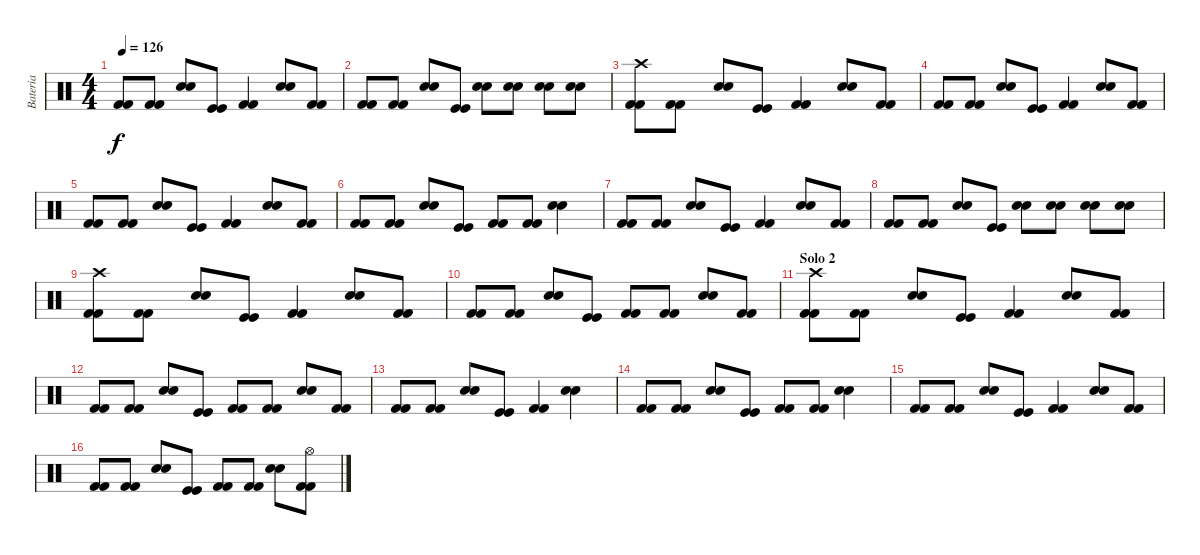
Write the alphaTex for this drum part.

\track ("Bateria" "Bateria") {instrument percussion}
\staff {score}
\articulation defaults
\ts (4 4)
\tempo 126
\clef neutral
\ks c
("Kick (hit) 2" "Kick (hit) 2").8{dy f} ("Kick (hit) 2" "Kick (hit) 2").8 ("Electric Snare (hit)" "Snare (hit) 2").8 ("Kick (hit)" "Kick (hit)").8 ("Kick (hit) 2" "Kick (hit) 2").4 ("Electric Snare (hit)" "Snare (hit) 2").8 ("Kick (hit) 2" "Kick (hit) 2").8 |
("Kick (hit) 2" "Kick (hit) 2").8 ("Kick (hit) 2" "Kick (hit) 2").8 ("Electric Snare (hit)" "Snare (hit) 2").8 ("Kick (hit)" "Kick (hit)").8 ("Electric Snare (hit)" "Snare (hit) 2").8 ("Electric Snare (hit)" "Snare (hit) 2").8 ("Electric Snare (hit)" "Snare (hit) 2").8 ("Electric Snare (hit)" "Snare (hit) 2").8 |
("Crash high (hit)" "Kick (hit) 2" "Kick (hit) 2").8 ("Kick (hit) 2" "Kick (hit) 2").8 ("Electric Snare (hit)" "Snare (hit) 2").8 ("Kick (hit)" "Kick (hit)").8 ("Kick (hit) 2" "Kick (hit) 2").4 ("Electric Snare (hit)" "Snare (hit) 2").8 ("Kick (hit) 2" "Kick (hit) 2").8 |
("Kick (hit) 2" "Kick (hit) 2").8 ("Kick (hit) 2" "Kick (hit) 2").8 ("Electric Snare (hit)" "Snare (hit) 2").8 ("Kick (hit)" "Kick (hit)").8 ("Kick (hit) 2" "Kick (hit) 2").4 ("Electric Snare (hit)" "Snare (hit) 2").8 ("Kick (hit) 2" "Kick (hit) 2").8 |
("Kick (hit) 2" "Kick (hit) 2").8 ("Kick (hit) 2" "Kick (hit) 2").8 ("Electric Snare (hit)" "Snare (hit) 2").8 ("Kick (hit)" "Kick (hit)").8 ("Kick (hit) 2" "Kick (hit) 2").4 ("Electric Snare (hit)" "Snare (hit) 2").8 ("Kick (hit) 2" "Kick (hit) 2").8 |
("Kick (hit) 2" "Kick (hit) 2").8 ("Kick (hit) 2" "Kick (hit) 2").8 ("Electric Snare (hit)" "Snare (hit) 2").8 ("Kick (hit)" "Kick (hit)").8 ("Kick (hit) 2" "Kick (hit) 2").8 ("Kick (hit) 2" "Kick (hit) 2").8 ("Electric Snare (hit)" "Snare (hit) 2").4 |
("Kick (hit) 2" "Kick (hit) 2").8 ("Kick (hit) 2" "Kick (hit) 2").8 ("Electric Snare (hit)" "Snare (hit) 2").8 ("Kick (hit)" "Kick (hit)").8 ("Kick (hit) 2" "Kick (hit) 2").4 ("Electric Snare (hit)" "Snare (hit) 2").8 ("Kick (hit) 2" "Kick (hit) 2").8 |
("Kick (hit) 2" "Kick (hit) 2").8 ("Kick (hit) 2" "Kick (hit) 2").8 ("Electric Snare (hit)" "Snare (hit) 2").8 ("Kick (hit)" "Kick (hit)").8 ("Electric Snare (hit)" "Snare (hit) 2").8 ("Electric Snare (hit)" "Snare (hit) 2").8 ("Electric Snare (hit)" "Snare (hit) 2").8 ("Electric Snare (hit)" "Snare (hit) 2").8 |
("Crash high (hit)" "Kick (hit) 2" "Kick (hit) 2").8 ("Kick (hit) 2" "Kick (hit) 2").8 ("Electric Snare (hit)" "Snare (hit) 2").8 ("Kick (hit)" "Kick (hit)").8 ("Kick (hit) 2" "Kick (hit) 2").4 ("Electric Snare (hit)" "Snare (hit) 2").8 ("Kick (hit) 2" "Kick (hit) 2").8 |
("Kick (hit) 2" "Kick (hit) 2").8 ("Kick (hit) 2" "Kick (hit) 2").8 ("Electric Snare (hit)" "Snare (hit) 2").8 ("Kick (hit)" "Kick (hit)").8 ("Kick (hit) 2" "Kick (hit) 2").8 ("Kick (hit) 2" "Kick (hit) 2").8 ("Electric Snare (hit)" "Snare (hit) 2").8 ("Kick (hit) 2" "Kick (hit) 2").8 |
\section ("" "Solo 2")
("Crash high (hit)" "Kick (hit) 2" "Kick (hit) 2").8 ("Kick (hit) 2" "Kick (hit) 2").8 ("Electric Snare (hit)" "Snare (hit) 2").8 ("Kick (hit)" "Kick (hit)").8 ("Kick (hit) 2" "Kick (hit) 2").4 ("Electric Snare (hit)" "Snare (hit) 2").8 ("Kick (hit) 2" "Kick (hit) 2").8 |
("Kick (hit) 2" "Kick (hit) 2").8 ("Kick (hit) 2" "Kick (hit) 2").8 ("Electric Snare (hit)" "Snare (hit) 2").8 ("Kick (hit)" "Kick (hit)").8 ("Kick (hit) 2" "Kick (hit) 2").8 ("Kick (hit) 2" "Kick (hit) 2").8 ("Electric Snare (hit)" "Snare (hit) 2").8 ("Kick (hit) 2" "Kick (hit) 2").8 |
("Kick (hit) 2" "Kick (hit) 2").8 ("Kick (hit) 2" "Kick (hit) 2").8 ("Electric Snare (hit)" "Snare (hit) 2").8 ("Kick (hit)" "Kick (hit)").8 ("Kick (hit) 2" "Kick (hit) 2").4 ("Electric Snare (hit)" "Snare (hit) 2").4 |
("Kick (hit) 2" "Kick (hit) 2").8 ("Kick (hit) 2" "Kick (hit) 2").8 ("Electric Snare (hit)" "Snare (hit) 2").8 ("Kick (hit)" "Kick (hit)").8 ("Kick (hit) 2" "Kick (hit) 2").8 ("Kick (hit) 2" "Kick (hit) 2").8 ("Electric Snare (hit)" "Snare (hit) 2").4 |
("Kick (hit) 2" "Kick (hit) 2").8 ("Kick (hit) 2" "Kick (hit) 2").8 ("Electric Snare (hit)" "Snare (hit) 2").8 ("Kick (hit)" "Kick (hit)").8 ("Kick (hit) 2" "Kick (hit) 2").4 ("Electric Snare (hit)" "Snare (hit) 2").8 ("Kick (hit) 2" "Kick (hit) 2").8 |
("Kick (hit) 2" "Kick (hit) 2").8 ("Kick (hit) 2" "Kick (hit) 2").8 ("Electric Snare (hit)" "Snare (hit) 2").8 ("Kick (hit)" "Kick (hit)").8 ("Kick (hit) 2" "Kick (hit) 2").8 ("Kick (hit) 2" "Kick (hit) 2").8 ("Electric Snare (hit)" "Snare (hit) 2").8 ("Hi-Hat (open)" "Kick (hit) 2" "Kick (hit) 2").8
